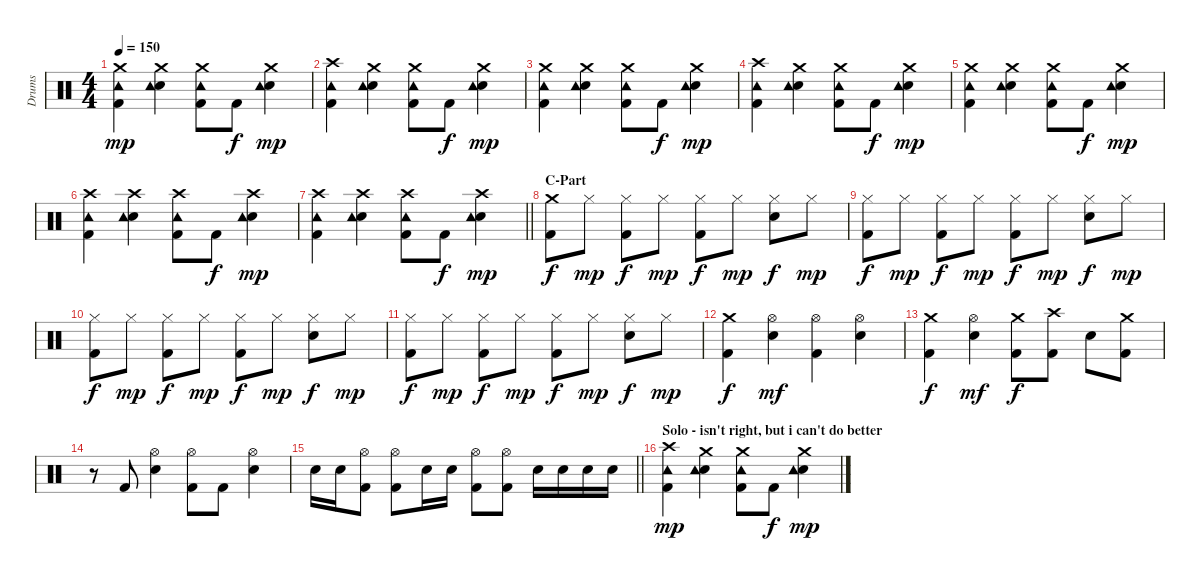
\track ("Drums" "Drums") {instrument percussion}
\staff {score}
\articulation defaults
\ts (4 4)
\tempo 150
\clef neutral
\ks c
("Crash medium (hit)" "Kick (hit) 2" "Tambourine (hit)").4{dy mp} ("Crash medium (hit)" "Snare (hit) 2" "Tambourine (hit)").4 ("Crash medium (hit)" "Kick (hit) 2" "Tambourine (hit)").8 "Kick (hit) 2".8{dy f} ("Crash medium (hit)" "Snare (hit) 2" "Tambourine (hit)").4{dy mp} |
("Crash high (hit)" "Kick (hit) 2" "Tambourine (hit)").4 ("Crash medium (hit)" "Snare (hit) 2" "Tambourine (hit)").4 ("Crash medium (hit)" "Kick (hit) 2" "Tambourine (hit)").8 "Kick (hit) 2".8{dy f} ("Crash medium (hit)" "Snare (hit) 2" "Tambourine (hit)").4{dy mp} |
("Crash medium (hit)" "Kick (hit) 2" "Tambourine (hit)").4 ("Crash medium (hit)" "Snare (hit) 2" "Tambourine (hit)").4 ("Crash medium (hit)" "Kick (hit) 2" "Tambourine (hit)").8 "Kick (hit) 2".8{dy f} ("Crash medium (hit)" "Snare (hit) 2" "Tambourine (hit)").4{dy mp} |
("Crash high (hit)" "Kick (hit) 2" "Tambourine (hit)").4 ("Crash medium (hit)" "Snare (hit) 2" "Tambourine (hit)").4 ("Crash medium (hit)" "Kick (hit) 2" "Tambourine (hit)").8 "Kick (hit) 2".8{dy f} ("Crash medium (hit)" "Snare (hit) 2" "Tambourine (hit)").4{dy mp} |
("Crash medium (hit)" "Kick (hit) 2" "Tambourine (hit)").4 ("Crash medium (hit)" "Snare (hit) 2" "Tambourine (hit)").4 ("Crash medium (hit)" "Kick (hit) 2" "Tambourine (hit)").8 "Kick (hit) 2".8{dy f} ("Crash medium (hit)" "Snare (hit) 2" "Tambourine (hit)").4{dy mp} |
("Crash high (hit)" "Kick (hit) 2" "Tambourine (hit)").4 ("Crash high (hit)" "Snare (hit) 2" "Tambourine (hit)").4 ("Crash high (hit)" "Kick (hit) 2" "Tambourine (hit)").8 "Kick (hit) 2".8{dy f} ("Crash high (hit)" "Snare (hit) 2" "Tambourine (hit)").4{dy mp} |
\barLineRight lightlight
("Crash high (hit)" "Kick (hit) 2" "Tambourine (hit)").4 ("Crash high (hit)" "Snare (hit) 2" "Tambourine (hit)").4 ("Crash high (hit)" "Kick (hit) 2" "Tambourine (hit)").8 "Kick (hit) 2".8{dy f} ("Crash high (hit)" "Snare (hit) 2" "Tambourine (hit)").4{dy mp} |
\section ("" "C-Part")
("Crash medium (hit)" "Kick (hit) 2").8{dy f volume 12} "Hi-Hat (closed)".8{dy mp} ("Hi-Hat (closed)" "Kick (hit) 2").8{dy f} "Hi-Hat (closed)".8{dy mp} ("Hi-Hat (closed)" "Kick (hit) 2").8{dy f} "Hi-Hat (closed)".8{dy mp} ("Hi-Hat (closed)" "Snare (hit) 2").8{dy f} "Hi-Hat (closed)".8{dy mp} |
("Hi-Hat (closed)" "Kick (hit) 2").8{dy f} "Hi-Hat (closed)".8{dy mp} ("Hi-Hat (closed)" "Kick (hit) 2").8{dy f} "Hi-Hat (closed)".8{dy mp} ("Hi-Hat (closed)" "Kick (hit) 2").8{dy f} "Hi-Hat (closed)".8{dy mp} ("Hi-Hat (closed)" "Snare (hit) 2").8{dy f} "Hi-Hat (closed)".8{dy mp} |
("Hi-Hat (closed)" "Kick (hit) 2").8{dy f} "Hi-Hat (closed)".8{dy mp} ("Hi-Hat (closed)" "Kick (hit) 2").8{dy f} "Hi-Hat (closed)".8{dy mp} ("Hi-Hat (closed)" "Kick (hit) 2").8{dy f} "Hi-Hat (closed)".8{dy mp} ("Hi-Hat (closed)" "Snare (hit) 2").8{dy f} "Hi-Hat (closed)".8{dy mp} |
("Hi-Hat (closed)" "Kick (hit) 2").8{dy f} "Hi-Hat (closed)".8{dy mp} ("Hi-Hat (closed)" "Kick (hit) 2").8{dy f} "Hi-Hat (closed)".8{dy mp} ("Hi-Hat (closed)" "Kick (hit) 2").8{dy f} "Hi-Hat (closed)".8{dy mp} ("Hi-Hat (closed)" "Snare (hit) 2").8{dy f} "Hi-Hat (closed)".8{dy mp} |
("Crash medium (hit)" "Kick (hit) 2").4{dy f} ("Hi-Hat (open)" "Snare (hit) 2").4{dy mf} ("Hi-Hat (open)" "Kick (hit) 2").4 ("Hi-Hat (open)" "Snare (hit) 2").4 |
("Crash medium (hit)" "Kick (hit) 2").4{dy f} ("Hi-Hat (open)" "Snare (hit) 2").4{dy mf} ("Crash medium (hit)" "Kick (hit) 2").8{dy f volume 15} ("Crash high (hit)" "Kick (hit) 2").8 "Snare (hit) 2".8 ("Crash medium (hit)" "Kick (hit) 2").8 |
r.8 "Kick (hit) 2".8 ("Hi-Hat (open)" "Snare (hit) 2").4 ("Hi-Hat (open)" "Kick (hit) 2").8 "Kick (hit) 2".8 ("Hi-Hat (open)" "Snare (hit) 2").4 |
\barLineRight lightlight "Snare (hit) 2".16 "Snare (hit) 2".16
("Hi-Hat (open)" "Kick (hit) 2").8 ("Hi-Hat (open)" "Kick (hit) 2").8 "Snare (hit) 2".16 "Snare (hit) 2".16 ("Hi-Hat (open)" "Kick (hit) 2").8 ("Hi-Hat (open)" "Kick (hit) 2").8 "Snare (hit) 2".16 "Snare (hit) 2".16 "Snare (hit) 2".16 "Snare (hit) 2".16 |
\section ("" "Solo - isn't right, but i can't do better")
("Crash high (hit)" "Kick (hit) 2" "Tambourine (hit)").4{dy mp} ("Crash medium (hit)" "Snare (hit) 2" "Tambourine (hit)").4 ("Crash medium (hit)" "Kick (hit) 2" "Tambourine (hit)").8 "Kick (hit) 2".8{dy f} ("Crash medium (hit)" "Snare (hit) 2" "Tambourine (hit)").4{dy mp}
